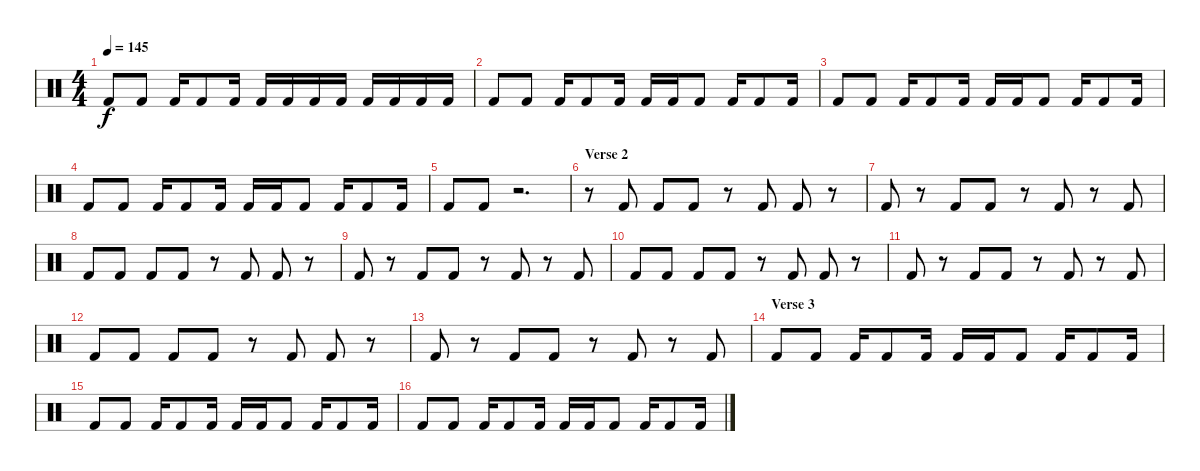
\track "" {instrument percussion}
\staff {score}
\articulation defaults
\ts (4 4)
\tempo 145
\clef neutral
\ks c "Kick (hit) 2".8{dy f} "Kick (hit) 2".8 "Kick (hit) 2".16 "Kick (hit) 2".8 "Kick (hit) 2".16 "Kick (hit) 2".16 "Kick (hit) 2".16 "Kick (hit) 2".16 "Kick (hit) 2".16 "Kick (hit) 2".16 "Kick (hit) 2".16 "Kick (hit) 2".16 "Kick (hit) 2".16
|
"Kick (hit) 2".8 "Kick (hit) 2".8 "Kick (hit) 2".16 "Kick (hit) 2".8 "Kick (hit) 2".16 "Kick (hit) 2".16 "Kick (hit) 2".16 "Kick (hit) 2".8 "Kick (hit) 2".16 "Kick (hit) 2".8 "Kick (hit) 2".16 |
"Kick (hit) 2".8 "Kick (hit) 2".8 "Kick (hit) 2".16 "Kick (hit) 2".8 "Kick (hit) 2".16 "Kick (hit) 2".16 "Kick (hit) 2".16 "Kick (hit) 2".8 "Kick (hit) 2".16 "Kick (hit) 2".8 "Kick (hit) 2".16 |
"Kick (hit) 2".8 "Kick (hit) 2".8 "Kick (hit) 2".16 "Kick (hit) 2".8 "Kick (hit) 2".16 "Kick (hit) 2".16 "Kick (hit) 2".16 "Kick (hit) 2".8 "Kick (hit) 2".16 "Kick (hit) 2".8 "Kick (hit) 2".16 |
"Kick (hit) 2".8 "Kick (hit) 2".8 r.2{d} |
\section ("" "Verse 2")
r.8 "Kick (hit) 2".8 "Kick (hit) 2".8 "Kick (hit) 2".8 r.8 "Kick (hit) 2".8 "Kick (hit) 2".8 r.8 |
"Kick (hit) 2".8 r.8 "Kick (hit) 2".8 "Kick (hit) 2".8 r.8 "Kick (hit) 2".8 r.8 "Kick (hit) 2".8 |
"Kick (hit) 2".8 "Kick (hit) 2".8 "Kick (hit) 2".8 "Kick (hit) 2".8 r.8 "Kick (hit) 2".8 "Kick (hit) 2".8 r.8 |
"Kick (hit) 2".8 r.8 "Kick (hit) 2".8 "Kick (hit) 2".8 r.8 "Kick (hit) 2".8 r.8 "Kick (hit) 2".8 |
"Kick (hit) 2".8 "Kick (hit) 2".8 "Kick (hit) 2".8 "Kick (hit) 2".8 r.8 "Kick (hit) 2".8 "Kick (hit) 2".8 r.8 |
"Kick (hit) 2".8 r.8 "Kick (hit) 2".8 "Kick (hit) 2".8 r.8 "Kick (hit) 2".8 r.8 "Kick (hit) 2".8 |
"Kick (hit) 2".8 "Kick (hit) 2".8 "Kick (hit) 2".8 "Kick (hit) 2".8 r.8 "Kick (hit) 2".8 "Kick (hit) 2".8 r.8 |
"Kick (hit) 2".8 r.8 "Kick (hit) 2".8 "Kick (hit) 2".8 r.8 "Kick (hit) 2".8 r.8 "Kick (hit) 2".8 |
\section ("" "Verse 3")
"Kick (hit) 2".8 "Kick (hit) 2".8 "Kick (hit) 2".16 "Kick (hit) 2".8 "Kick (hit) 2".16 "Kick (hit) 2".16 "Kick (hit) 2".16 "Kick (hit) 2".8 "Kick (hit) 2".16 "Kick (hit) 2".8 "Kick (hit) 2".16 |
"Kick (hit) 2".8 "Kick (hit) 2".8 "Kick (hit) 2".16 "Kick (hit) 2".8 "Kick (hit) 2".16 "Kick (hit) 2".16 "Kick (hit) 2".16 "Kick (hit) 2".8 "Kick (hit) 2".16 "Kick (hit) 2".8 "Kick (hit) 2".16 |
"Kick (hit) 2".8 "Kick (hit) 2".8 "Kick (hit) 2".16 "Kick (hit) 2".8 "Kick (hit) 2".16 "Kick (hit) 2".16 "Kick (hit) 2".16 "Kick (hit) 2".8 "Kick (hit) 2".16 "Kick (hit) 2".8 "Kick (hit) 2".16
